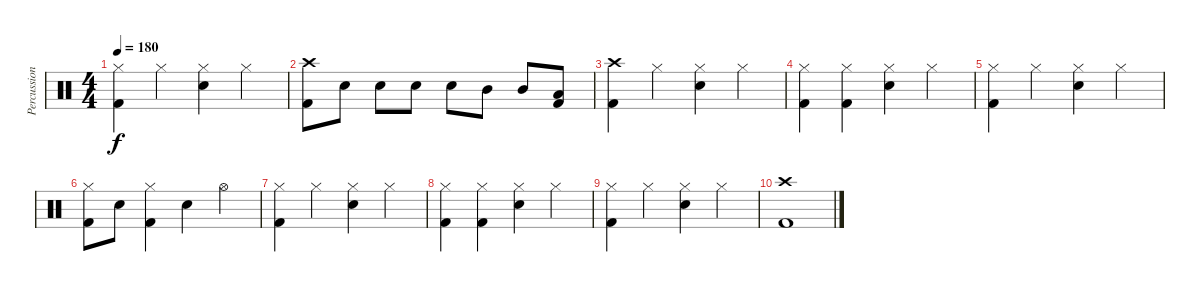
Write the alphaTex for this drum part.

\track ("Percussion" "Percussion") {instrument percussion}
\staff {score}
\articulation defaults
\ts (4 4)
\tempo 180
\clef neutral
\ks c
("Hi-Hat (closed)" "Kick (hit) 2").4{dy f} "Hi-Hat (closed)".4 ("Hi-Hat (closed)" "Snare (hit) 2").4 "Hi-Hat (closed)".4 |
("Crash high (hit)" "Kick (hit) 2").8 "Snare (hit) 2".8 "Snare (hit) 2".8 "Snare (hit) 2".8 "Snare (hit) 2".8 "Mid Tom (hit)".8 "Mid Tom (hit)".8 ("Kick (hit) 2" "Low Tom (hit)").8 |
("Crash high (hit)" "Kick (hit) 2").4 "Hi-Hat (closed)".4 ("Hi-Hat (closed)" "Snare (hit) 2").4 "Hi-Hat (closed)".4 |
("Hi-Hat (closed)" "Kick (hit) 2").4 ("Hi-Hat (closed)" "Kick (hit) 2").4 ("Hi-Hat (closed)" "Snare (hit) 2").4 "Hi-Hat (closed)".4 |
("Hi-Hat (closed)" "Kick (hit) 2").4 "Hi-Hat (closed)".4 ("Hi-Hat (closed)" "Snare (hit) 2").4 "Hi-Hat (closed)".4 |
("Hi-Hat (closed)" "Kick (hit) 2").8 "Snare (hit) 2".8 ("Hi-Hat (closed)" "Kick (hit) 2").4 "Snare (hit) 2".4 "Hi-Hat (open)".4 |
("Hi-Hat (closed)" "Kick (hit) 2").4 "Hi-Hat (closed)".4 ("Hi-Hat (closed)" "Snare (hit) 2").4 "Hi-Hat (closed)".4 |
("Hi-Hat (closed)" "Kick (hit) 2").4 ("Hi-Hat (closed)" "Kick (hit) 2").4 ("Hi-Hat (closed)" "Snare (hit) 2").4 "Hi-Hat (closed)".4 |
("Hi-Hat (closed)" "Kick (hit) 2").4 "Hi-Hat (closed)".4 ("Hi-Hat (closed)" "Snare (hit) 2").4 "Hi-Hat (closed)".4 |
("Crash high (hit)" "Kick (hit) 2").1
